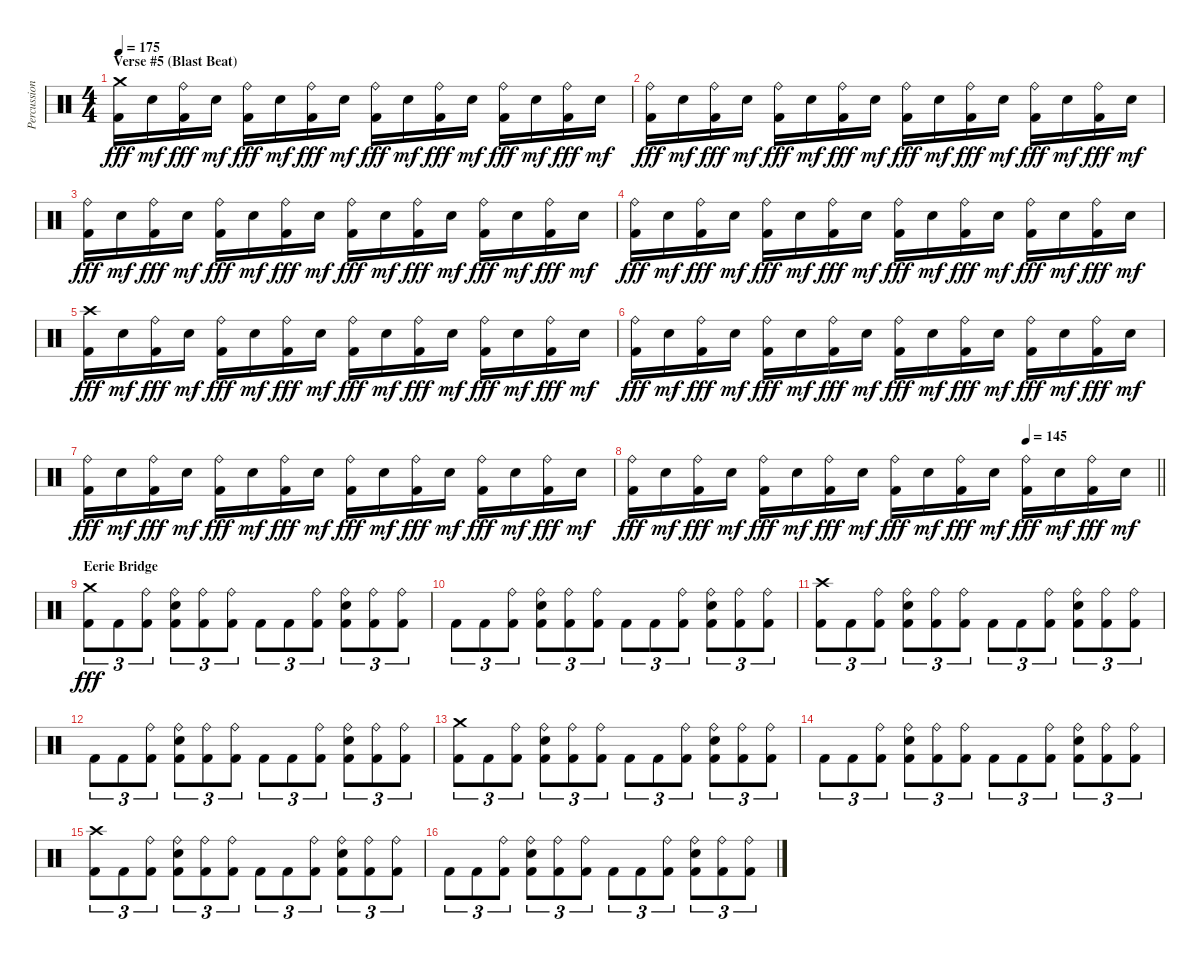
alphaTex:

\track ("Percussions" "Percussion") {instrument percussion}
\staff {score}
\articulation defaults
\ts (4 4)
\section ("" "Verse #5 (Blast Beat)")
\tempo 175
\clef neutral
\ks c
("Crash medium (hit)" "Kick (hit) 2").16{dy fff} "Snare (hit) 2".16{dy mf} ("Ride (bell)" "Kick (hit) 2").16{dy fff} "Snare (hit) 2".16{dy mf} ("Ride (bell)" "Kick (hit) 2").16{dy fff} "Snare (hit) 2".16{dy mf} ("Ride (bell)" "Kick (hit) 2").16{dy fff} "Snare (hit) 2".16{dy mf} ("Ride (bell)" "Kick (hit) 2").16{dy fff} "Snare (hit) 2".16{dy mf} ("Ride (bell)" "Kick (hit) 2").16{dy fff} "Snare (hit) 2".16{dy mf} ("Ride (bell)" "Kick (hit) 2").16{dy fff} "Snare (hit) 2".16{dy mf} ("Ride (bell)" "Kick (hit) 2").16{dy fff} "Snare (hit) 2".16{dy mf} |
("Ride (bell)" "Kick (hit) 2").16{dy fff} "Snare (hit) 2".16{dy mf} ("Ride (bell)" "Kick (hit) 2").16{dy fff} "Snare (hit) 2".16{dy mf} ("Ride (bell)" "Kick (hit) 2").16{dy fff} "Snare (hit) 2".16{dy mf} ("Ride (bell)" "Kick (hit) 2").16{dy fff} "Snare (hit) 2".16{dy mf} ("Ride (bell)" "Kick (hit) 2").16{dy fff} "Snare (hit) 2".16{dy mf} ("Ride (bell)" "Kick (hit) 2").16{dy fff} "Snare (hit) 2".16{dy mf} ("Ride (bell)" "Kick (hit) 2").16{dy fff} "Snare (hit) 2".16{dy mf} ("Ride (bell)" "Kick (hit) 2").16{dy fff} "Snare (hit) 2".16{dy mf} |
("Ride (bell)" "Kick (hit) 2").16{dy fff} "Snare (hit) 2".16{dy mf} ("Ride (bell)" "Kick (hit) 2").16{dy fff} "Snare (hit) 2".16{dy mf} ("Ride (bell)" "Kick (hit) 2").16{dy fff} "Snare (hit) 2".16{dy mf} ("Ride (bell)" "Kick (hit) 2").16{dy fff} "Snare (hit) 2".16{dy mf} ("Ride (bell)" "Kick (hit) 2").16{dy fff} "Snare (hit) 2".16{dy mf} ("Ride (bell)" "Kick (hit) 2").16{dy fff} "Snare (hit) 2".16{dy mf} ("Ride (bell)" "Kick (hit) 2").16{dy fff} "Snare (hit) 2".16{dy mf} ("Ride (bell)" "Kick (hit) 2").16{dy fff} "Snare (hit) 2".16{dy mf} |
("Ride (bell)" "Kick (hit) 2").16{dy fff} "Snare (hit) 2".16{dy mf} ("Ride (bell)" "Kick (hit) 2").16{dy fff} "Snare (hit) 2".16{dy mf} ("Ride (bell)" "Kick (hit) 2").16{dy fff} "Snare (hit) 2".16{dy mf} ("Ride (bell)" "Kick (hit) 2").16{dy fff} "Snare (hit) 2".16{dy mf} ("Ride (bell)" "Kick (hit) 2").16{dy fff} "Snare (hit) 2".16{dy mf} ("Ride (bell)" "Kick (hit) 2").16{dy fff} "Snare (hit) 2".16{dy mf} ("Ride (bell)" "Kick (hit) 2").16{dy fff} "Snare (hit) 2".16{dy mf} ("Ride (bell)" "Kick (hit) 2").16{dy fff} "Snare (hit) 2".16{dy mf} |
("Crash high (hit)" "Kick (hit) 2").16{dy fff} "Snare (hit) 2".16{dy mf} ("Ride (bell)" "Kick (hit) 2").16{dy fff} "Snare (hit) 2".16{dy mf} ("Ride (bell)" "Kick (hit) 2").16{dy fff} "Snare (hit) 2".16{dy mf} ("Ride (bell)" "Kick (hit) 2").16{dy fff} "Snare (hit) 2".16{dy mf} ("Ride (bell)" "Kick (hit) 2").16{dy fff} "Snare (hit) 2".16{dy mf} ("Ride (bell)" "Kick (hit) 2").16{dy fff} "Snare (hit) 2".16{dy mf} ("Ride (bell)" "Kick (hit) 2").16{dy fff} "Snare (hit) 2".16{dy mf} ("Ride (bell)" "Kick (hit) 2").16{dy fff} "Snare (hit) 2".16{dy mf} |
("Ride (bell)" "Kick (hit) 2").16{dy fff} "Snare (hit) 2".16{dy mf} ("Ride (bell)" "Kick (hit) 2").16{dy fff} "Snare (hit) 2".16{dy mf} ("Ride (bell)" "Kick (hit) 2").16{dy fff} "Snare (hit) 2".16{dy mf} ("Ride (bell)" "Kick (hit) 2").16{dy fff} "Snare (hit) 2".16{dy mf} ("Ride (bell)" "Kick (hit) 2").16{dy fff} "Snare (hit) 2".16{dy mf} ("Ride (bell)" "Kick (hit) 2").16{dy fff} "Snare (hit) 2".16{dy mf} ("Ride (bell)" "Kick (hit) 2").16{dy fff} "Snare (hit) 2".16{dy mf} ("Ride (bell)" "Kick (hit) 2").16{dy fff} "Snare (hit) 2".16{dy mf} |
("Ride (bell)" "Kick (hit) 2").16{dy fff} "Snare (hit) 2".16{dy mf} ("Ride (bell)" "Kick (hit) 2").16{dy fff} "Snare (hit) 2".16{dy mf} ("Ride (bell)" "Kick (hit) 2").16{dy fff} "Snare (hit) 2".16{dy mf} ("Ride (bell)" "Kick (hit) 2").16{dy fff} "Snare (hit) 2".16{dy mf} ("Ride (bell)" "Kick (hit) 2").16{dy fff} "Snare (hit) 2".16{dy mf} ("Ride (bell)" "Kick (hit) 2").16{dy fff} "Snare (hit) 2".16{dy mf} ("Ride (bell)" "Kick (hit) 2").16{dy fff} "Snare (hit) 2".16{dy mf} ("Ride (bell)" "Kick (hit) 2").16{dy fff} "Snare (hit) 2".16{dy mf} |
\tempo (145 0.75)
\barLineRight lightlight
("Ride (bell)" "Kick (hit) 2").16{dy fff} "Snare (hit) 2".16{dy mf} ("Ride (bell)" "Kick (hit) 2").16{dy fff} "Snare (hit) 2".16{dy mf} ("Ride (bell)" "Kick (hit) 2").16{dy fff} "Snare (hit) 2".16{dy mf} ("Ride (bell)" "Kick (hit) 2").16{dy fff} "Snare (hit) 2".16{dy mf} ("Ride (bell)" "Kick (hit) 2").16{dy fff} "Snare (hit) 2".16{dy mf} ("Ride (bell)" "Kick (hit) 2").16{dy fff} "Snare (hit) 2".16{dy mf} ("Ride (bell)" "Kick (hit) 2").16{dy fff} "Snare (hit) 2".16{dy mf} ("Ride (bell)" "Kick (hit) 2").16{dy fff} "Snare (hit) 2".16{dy mf} |
\section ("" "Eerie Bridge")
("Crash medium (hit)" "Kick (hit) 2").8{tu (3 2) dy fff} "Kick (hit) 2".8{tu (3 2)} ("Ride (bell)" "Kick (hit) 2").8{tu (3 2)} ("Ride (bell)" "Snare (hit) 2" "Kick (hit) 2").8{tu (3 2)} ("Ride (bell)" "Kick (hit) 2").8{tu (3 2)} ("Ride (bell)" "Kick (hit) 2").8{tu (3 2)} "Kick (hit) 2".8{tu (3 2)} "Kick (hit) 2".8{tu (3 2)} ("Ride (bell)" "Kick (hit) 2").8{tu (3 2)} ("Ride (bell)" "Snare (hit) 2" "Kick (hit) 2").8{tu (3 2)} ("Ride (bell)" "Kick (hit) 2").8{tu (3 2)} ("Ride (bell)" "Kick (hit) 2").8{tu (3 2)} |
"Kick (hit) 2".8{tu (3 2)} "Kick (hit) 2".8{tu (3 2)} ("Ride (bell)" "Kick (hit) 2").8{tu (3 2)} ("Ride (bell)" "Snare (hit) 2" "Kick (hit) 2").8{tu (3 2)} ("Ride (bell)" "Kick (hit) 2").8{tu (3 2)} ("Ride (bell)" "Kick (hit) 2").8{tu (3 2)} "Kick (hit) 2".8{tu (3 2)} "Kick (hit) 2".8{tu (3 2)} ("Ride (bell)" "Kick (hit) 2").8{tu (3 2)} ("Ride (bell)" "Snare (hit) 2" "Kick (hit) 2").8{tu (3 2)} ("Ride (bell)" "Kick (hit) 2").8{tu (3 2)} ("Ride (bell)" "Kick (hit) 2").8{tu (3 2)} |
("Crash high (hit)" "Kick (hit) 2").8{tu (3 2)} "Kick (hit) 2".8{tu (3 2)} ("Ride (bell)" "Kick (hit) 2").8{tu (3 2)} ("Ride (bell)" "Snare (hit) 2" "Kick (hit) 2").8{tu (3 2)} ("Ride (bell)" "Kick (hit) 2").8{tu (3 2)} ("Ride (bell)" "Kick (hit) 2").8{tu (3 2)} "Kick (hit) 2".8{tu (3 2)} "Kick (hit) 2".8{tu (3 2)} ("Ride (bell)" "Kick (hit) 2").8{tu (3 2)} ("Ride (bell)" "Snare (hit) 2" "Kick (hit) 2").8{tu (3 2)} ("Ride (bell)" "Kick (hit) 2").8{tu (3 2)} ("Ride (bell)" "Kick (hit) 2").8{tu (3 2)} |
"Kick (hit) 2".8{tu (3 2)} "Kick (hit) 2".8{tu (3 2)} ("Ride (bell)" "Kick (hit) 2").8{tu (3 2)} ("Ride (bell)" "Snare (hit) 2" "Kick (hit) 2").8{tu (3 2)} ("Ride (bell)" "Kick (hit) 2").8{tu (3 2)} ("Ride (bell)" "Kick (hit) 2").8{tu (3 2)} "Kick (hit) 2".8{tu (3 2)} "Kick (hit) 2".8{tu (3 2)} ("Ride (bell)" "Kick (hit) 2").8{tu (3 2)} ("Ride (bell)" "Snare (hit) 2" "Kick (hit) 2").8{tu (3 2)} ("Ride (bell)" "Kick (hit) 2").8{tu (3 2)} ("Ride (bell)" "Kick (hit) 2").8{tu (3 2)} |
("Crash medium (hit)" "Kick (hit) 2").8{tu (3 2)} "Kick (hit) 2".8{tu (3 2)} ("Ride (bell)" "Kick (hit) 2").8{tu (3 2)} ("Ride (bell)" "Snare (hit) 2" "Kick (hit) 2").8{tu (3 2)} ("Ride (bell)" "Kick (hit) 2").8{tu (3 2)} ("Ride (bell)" "Kick (hit) 2").8{tu (3 2)} "Kick (hit) 2".8{tu (3 2)} "Kick (hit) 2".8{tu (3 2)} ("Ride (bell)" "Kick (hit) 2").8{tu (3 2)} ("Ride (bell)" "Snare (hit) 2" "Kick (hit) 2").8{tu (3 2)} ("Ride (bell)" "Kick (hit) 2").8{tu (3 2)} ("Ride (bell)" "Kick (hit) 2").8{tu (3 2)} |
"Kick (hit) 2".8{tu (3 2)} "Kick (hit) 2".8{tu (3 2)} ("Ride (bell)" "Kick (hit) 2").8{tu (3 2)} ("Ride (bell)" "Snare (hit) 2" "Kick (hit) 2").8{tu (3 2)} ("Ride (bell)" "Kick (hit) 2").8{tu (3 2)} ("Ride (bell)" "Kick (hit) 2").8{tu (3 2)} "Kick (hit) 2".8{tu (3 2)} "Kick (hit) 2".8{tu (3 2)} ("Ride (bell)" "Kick (hit) 2").8{tu (3 2)} ("Ride (bell)" "Snare (hit) 2" "Kick (hit) 2").8{tu (3 2)} ("Ride (bell)" "Kick (hit) 2").8{tu (3 2)} ("Ride (bell)" "Kick (hit) 2").8{tu (3 2)} |
("Crash high (hit)" "Kick (hit) 2").8{tu (3 2)} "Kick (hit) 2".8{tu (3 2)} ("Ride (bell)" "Kick (hit) 2").8{tu (3 2)} ("Ride (bell)" "Snare (hit) 2" "Kick (hit) 2").8{tu (3 2)} ("Ride (bell)" "Kick (hit) 2").8{tu (3 2)} ("Ride (bell)" "Kick (hit) 2").8{tu (3 2)} "Kick (hit) 2".8{tu (3 2)} "Kick (hit) 2".8{tu (3 2)} ("Ride (bell)" "Kick (hit) 2").8{tu (3 2)} ("Ride (bell)" "Snare (hit) 2" "Kick (hit) 2").8{tu (3 2)} ("Ride (bell)" "Kick (hit) 2").8{tu (3 2)} ("Ride (bell)" "Kick (hit) 2").8{tu (3 2)} |
"Kick (hit) 2".8{tu (3 2)} "Kick (hit) 2".8{tu (3 2)} ("Ride (bell)" "Kick (hit) 2").8{tu (3 2)} ("Ride (bell)" "Snare (hit) 2" "Kick (hit) 2").8{tu (3 2)} ("Ride (bell)" "Kick (hit) 2").8{tu (3 2)} ("Ride (bell)" "Kick (hit) 2").8{tu (3 2)} "Kick (hit) 2".8{tu (3 2)} "Kick (hit) 2".8{tu (3 2)} ("Ride (bell)" "Kick (hit) 2").8{tu (3 2)} ("Ride (bell)" "Snare (hit) 2" "Kick (hit) 2").8{tu (3 2)} ("Ride (bell)" "Kick (hit) 2").8{tu (3 2)} ("Ride (bell)" "Kick (hit) 2").8{tu (3 2)}
